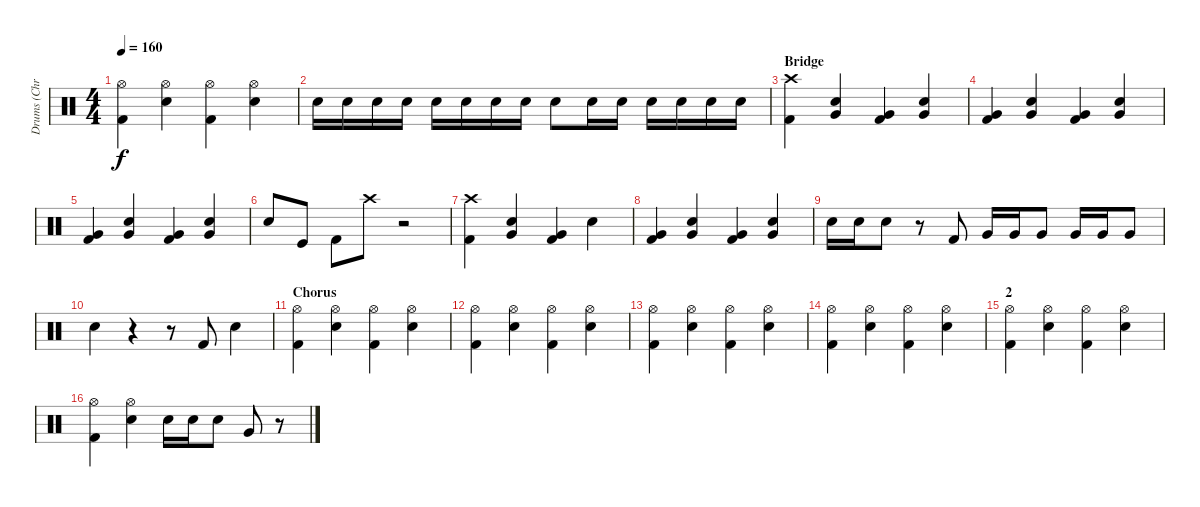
\track ("Drums (Chris Efthimiadis)" "Drums (Chr") {instrument percussion}
\staff {score}
\articulation defaults
\ts (4 4)
\tempo 160
\clef neutral
\ks c
("Hi-Hat (open)" "Kick (hit) 2").4{dy f} ("Hi-Hat (open)" "Snare (hit) 2").4 ("Hi-Hat (open)" "Kick (hit) 2").4 ("Hi-Hat (open)" "Snare (hit) 2").4 |
"Snare (hit) 2".16 "Snare (hit) 2".16 "Snare (hit) 2".16 "Snare (hit) 2".16 "Snare (hit) 2".16 "Snare (hit) 2".16 "Snare (hit) 2".16 "Snare (hit) 2".16 "Snare (hit) 2".8 "Snare (hit) 2".16 "Snare (hit) 2".16 "Snare (hit) 2".16 "Snare (hit) 2".16 "Snare (hit) 2".16 "Snare (hit) 2".16 |
\section ("" "Bridge")
("Crash high (hit)" "Kick (hit) 2").4 ("Very Low Tom (hit)" "Snare (hit) 2").4 ("Very Low Tom (hit)" "Kick (hit) 2").4 ("Very Low Tom (hit)" "Snare (hit) 2").4 |
("Very Low Tom (hit)" "Kick (hit) 2").4 ("Very Low Tom (hit)" "Snare (hit) 2").4 ("Very Low Tom (hit)" "Kick (hit) 2").4 ("Very Low Tom (hit)" "Snare (hit) 2").4 |
("Very Low Tom (hit)" "Kick (hit) 2").4 ("Very Low Tom (hit)" "Snare (hit) 2").4 ("Very Low Tom (hit)" "Kick (hit) 2").4 ("Very Low Tom (hit)" "Snare (hit) 2").4 |
"Snare (hit) 2".8 "Kick (hit)".8 "Kick (hit) 2".8 "Crash high (hit)".8 r.2 |
("Crash high (hit)" "Kick (hit) 2").4 ("Very Low Tom (hit)" "Snare (hit) 2").4 ("Very Low Tom (hit)" "Kick (hit) 2").4 "Snare (hit) 2".4 |
("Very Low Tom (hit)" "Kick (hit) 2").4 ("Very Low Tom (hit)" "Snare (hit) 2").4 ("Very Low Tom (hit)" "Kick (hit) 2").4 ("Very Low Tom (hit)" "Snare (hit) 2").4 |
"Snare (hit) 2".16 "Snare (hit) 2".16 "Snare (hit) 2".8 r.8 "Kick (hit) 2".8 "Very Low Tom (hit)".16 "Very Low Tom (hit)".16 "Very Low Tom (hit)".8 "Very Low Tom (hit)".16 "Very Low Tom (hit)".16 "Very Low Tom (hit)".8 |
"Snare (hit) 2".4 r.4 r.8 "Kick (hit) 2".8 "Snare (hit) 2".4 |
\section ("" "Chorus")
("Hi-Hat (open)" "Kick (hit) 2").4 ("Hi-Hat (open)" "Snare (hit) 2").4 ("Hi-Hat (open)" "Kick (hit) 2").4 ("Hi-Hat (open)" "Snare (hit) 2").4 |
("Hi-Hat (open)" "Kick (hit) 2").4 ("Hi-Hat (open)" "Snare (hit) 2").4 ("Hi-Hat (open)" "Kick (hit) 2").4 ("Hi-Hat (open)" "Snare (hit) 2").4 |
("Hi-Hat (open)" "Kick (hit) 2").4 ("Hi-Hat (open)" "Snare (hit) 2").4 ("Hi-Hat (open)" "Kick (hit) 2").4 ("Hi-Hat (open)" "Snare (hit) 2").4 |
("Hi-Hat (open)" "Kick (hit) 2").4 ("Hi-Hat (open)" "Snare (hit) 2").4 ("Hi-Hat (open)" "Kick (hit) 2").4 ("Hi-Hat (open)" "Snare (hit) 2").4 |
\section ("" "2")
("Hi-Hat (open)" "Kick (hit) 2").4 ("Hi-Hat (open)" "Snare (hit) 2").4 ("Hi-Hat (open)" "Kick (hit) 2").4 ("Hi-Hat (open)" "Snare (hit) 2").4 |
("Hi-Hat (open)" "Kick (hit) 2").4 ("Hi-Hat (open)" "Snare (hit) 2").4 "Snare (hit) 2".16 "Snare (hit) 2".16 "Snare (hit) 2".8 "Very Low Tom (hit)".8 r.8
